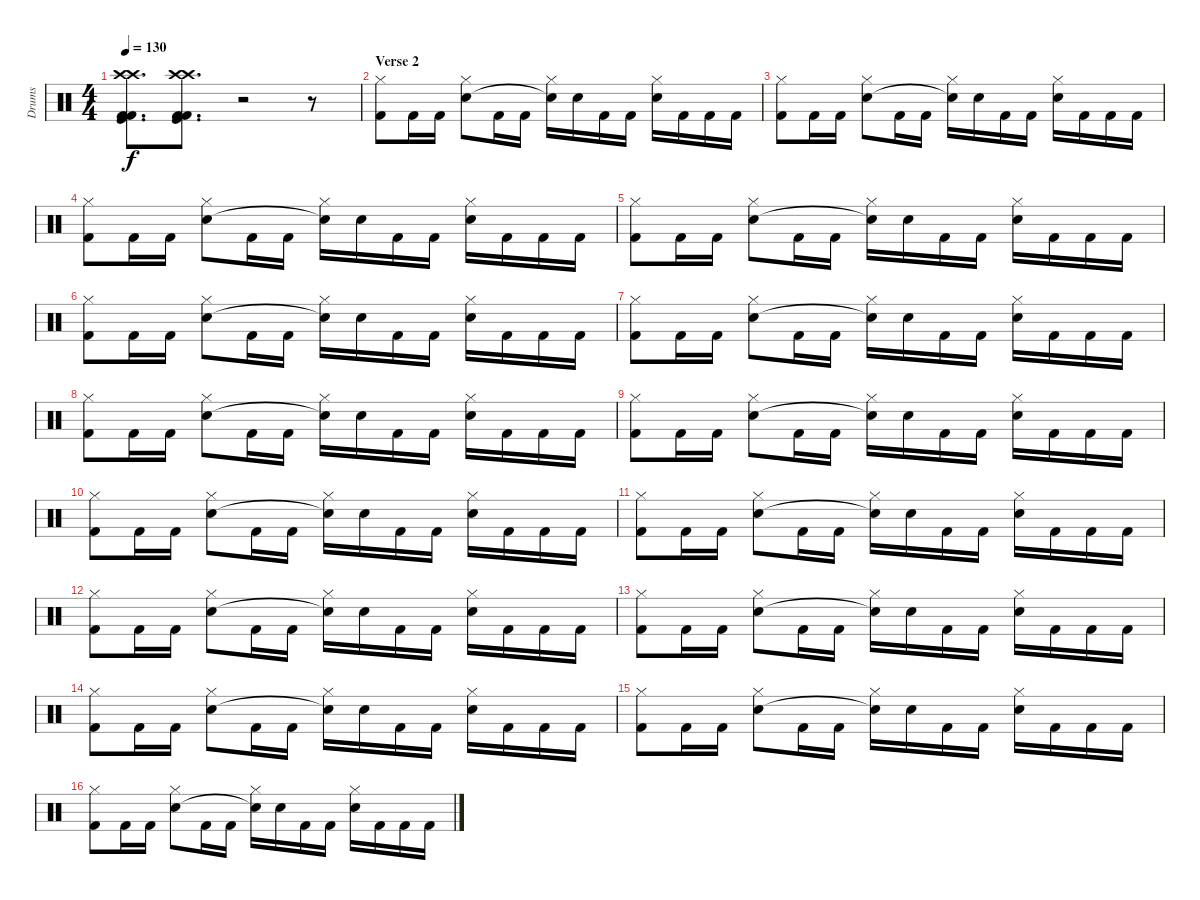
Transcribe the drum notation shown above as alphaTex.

\track ("Drums" "Drums") {instrument percussion}
\staff {score}
\articulation defaults
\ts (4 4)
\tempo 130
\clef neutral
\ks c
("Crash high (hit)" "Crash high (hit)" "Kick (hit)" "Kick (hit) 2" "Kick (hit) 2").8{d dy f} ("Crash high (hit)" "Crash high (hit)" "Kick (hit)" "Kick (hit) 2" "Kick (hit) 2").8{d} r.2 r.8 |
\section ("" "Verse 2")
("Hi-Hat (closed)" "Kick (hit) 2").8 "Kick (hit) 2".16 "Kick (hit) 2".16 ("Hi-Hat (closed)" "Electric Snare (hit)").8 "Kick (hit) 2".16 "Kick (hit) 2".16 ("Hi-Hat (closed)" "Snare (hit)"{t}).16 "Electric Snare (hit)".16 "Kick (hit) 2".16 "Kick (hit) 2".16 ("Hi-Hat (closed)" "Electric Snare (hit)").16 "Kick (hit) 2".16 "Kick (hit) 2".16 "Kick (hit) 2".16 |
("Hi-Hat (closed)" "Kick (hit) 2").8 "Kick (hit) 2".16 "Kick (hit) 2".16 ("Hi-Hat (closed)" "Electric Snare (hit)").8 "Kick (hit) 2".16 "Kick (hit) 2".16 ("Hi-Hat (closed)" "Snare (hit)"{t}).16 "Electric Snare (hit)".16 "Kick (hit) 2".16 "Kick (hit) 2".16 ("Hi-Hat (closed)" "Electric Snare (hit)").16 "Kick (hit) 2".16 "Kick (hit) 2".16 "Kick (hit) 2".16 |
("Hi-Hat (closed)" "Kick (hit) 2").8 "Kick (hit) 2".16 "Kick (hit) 2".16 ("Hi-Hat (closed)" "Electric Snare (hit)").8 "Kick (hit) 2".16 "Kick (hit) 2".16 ("Hi-Hat (closed)" "Snare (hit)"{t}).16 "Electric Snare (hit)".16 "Kick (hit) 2".16 "Kick (hit) 2".16 ("Hi-Hat (closed)" "Electric Snare (hit)").16 "Kick (hit) 2".16 "Kick (hit) 2".16 "Kick (hit) 2".16 |
("Hi-Hat (closed)" "Kick (hit) 2").8 "Kick (hit) 2".16 "Kick (hit) 2".16 ("Hi-Hat (closed)" "Electric Snare (hit)").8 "Kick (hit) 2".16 "Kick (hit) 2".16 ("Hi-Hat (closed)" "Snare (hit)"{t}).16 "Electric Snare (hit)".16 "Kick (hit) 2".16 "Kick (hit) 2".16 ("Hi-Hat (closed)" "Electric Snare (hit)").16 "Kick (hit) 2".16 "Kick (hit) 2".16 "Kick (hit) 2".16 |
("Hi-Hat (closed)" "Kick (hit) 2").8 "Kick (hit) 2".16 "Kick (hit) 2".16 ("Hi-Hat (closed)" "Electric Snare (hit)").8 "Kick (hit) 2".16 "Kick (hit) 2".16 ("Hi-Hat (closed)" "Snare (hit)"{t}).16 "Electric Snare (hit)".16 "Kick (hit) 2".16 "Kick (hit) 2".16 ("Hi-Hat (closed)" "Electric Snare (hit)").16 "Kick (hit) 2".16 "Kick (hit) 2".16 "Kick (hit) 2".16 |
("Hi-Hat (closed)" "Kick (hit) 2").8 "Kick (hit) 2".16 "Kick (hit) 2".16 ("Hi-Hat (closed)" "Electric Snare (hit)").8 "Kick (hit) 2".16 "Kick (hit) 2".16 ("Hi-Hat (closed)" "Snare (hit)"{t}).16 "Electric Snare (hit)".16 "Kick (hit) 2".16 "Kick (hit) 2".16 ("Hi-Hat (closed)" "Electric Snare (hit)").16 "Kick (hit) 2".16 "Kick (hit) 2".16 "Kick (hit) 2".16 |
("Hi-Hat (closed)" "Kick (hit) 2").8 "Kick (hit) 2".16 "Kick (hit) 2".16 ("Hi-Hat (closed)" "Electric Snare (hit)").8 "Kick (hit) 2".16 "Kick (hit) 2".16 ("Hi-Hat (closed)" "Snare (hit)"{t}).16 "Electric Snare (hit)".16 "Kick (hit) 2".16 "Kick (hit) 2".16 ("Hi-Hat (closed)" "Electric Snare (hit)").16 "Kick (hit) 2".16 "Kick (hit) 2".16 "Kick (hit) 2".16 |
("Hi-Hat (closed)" "Kick (hit) 2").8 "Kick (hit) 2".16 "Kick (hit) 2".16 ("Hi-Hat (closed)" "Electric Snare (hit)").8 "Kick (hit) 2".16 "Kick (hit) 2".16 ("Hi-Hat (closed)" "Snare (hit)"{t}).16 "Electric Snare (hit)".16 "Kick (hit) 2".16 "Kick (hit) 2".16 ("Hi-Hat (closed)" "Electric Snare (hit)").16 "Kick (hit) 2".16 "Kick (hit) 2".16 "Kick (hit) 2".16 |
("Hi-Hat (closed)" "Kick (hit) 2").8 "Kick (hit) 2".16 "Kick (hit) 2".16 ("Hi-Hat (closed)" "Electric Snare (hit)").8 "Kick (hit) 2".16 "Kick (hit) 2".16 ("Hi-Hat (closed)" "Snare (hit)"{t}).16 "Electric Snare (hit)".16 "Kick (hit) 2".16 "Kick (hit) 2".16 ("Hi-Hat (closed)" "Electric Snare (hit)").16 "Kick (hit) 2".16 "Kick (hit) 2".16 "Kick (hit) 2".16 |
("Hi-Hat (closed)" "Kick (hit) 2").8 "Kick (hit) 2".16 "Kick (hit) 2".16 ("Hi-Hat (closed)" "Electric Snare (hit)").8 "Kick (hit) 2".16 "Kick (hit) 2".16 ("Hi-Hat (closed)" "Snare (hit)"{t}).16 "Electric Snare (hit)".16 "Kick (hit) 2".16 "Kick (hit) 2".16 ("Hi-Hat (closed)" "Electric Snare (hit)").16 "Kick (hit) 2".16 "Kick (hit) 2".16 "Kick (hit) 2".16 |
("Hi-Hat (closed)" "Kick (hit) 2").8 "Kick (hit) 2".16 "Kick (hit) 2".16 ("Hi-Hat (closed)" "Electric Snare (hit)").8 "Kick (hit) 2".16 "Kick (hit) 2".16 ("Hi-Hat (closed)" "Snare (hit)"{t}).16 "Electric Snare (hit)".16 "Kick (hit) 2".16 "Kick (hit) 2".16 ("Hi-Hat (closed)" "Electric Snare (hit)").16 "Kick (hit) 2".16 "Kick (hit) 2".16 "Kick (hit) 2".16 |
("Hi-Hat (closed)" "Kick (hit) 2").8 "Kick (hit) 2".16 "Kick (hit) 2".16 ("Hi-Hat (closed)" "Electric Snare (hit)").8 "Kick (hit) 2".16 "Kick (hit) 2".16 ("Hi-Hat (closed)" "Snare (hit)"{t}).16 "Electric Snare (hit)".16 "Kick (hit) 2".16 "Kick (hit) 2".16 ("Hi-Hat (closed)" "Electric Snare (hit)").16 "Kick (hit) 2".16 "Kick (hit) 2".16 "Kick (hit) 2".16 |
("Hi-Hat (closed)" "Kick (hit) 2").8 "Kick (hit) 2".16 "Kick (hit) 2".16 ("Hi-Hat (closed)" "Electric Snare (hit)").8 "Kick (hit) 2".16 "Kick (hit) 2".16 ("Hi-Hat (closed)" "Snare (hit)"{t}).16 "Electric Snare (hit)".16 "Kick (hit) 2".16 "Kick (hit) 2".16 ("Hi-Hat (closed)" "Electric Snare (hit)").16 "Kick (hit) 2".16 "Kick (hit) 2".16 "Kick (hit) 2".16 |
("Hi-Hat (closed)" "Kick (hit) 2").8 "Kick (hit) 2".16 "Kick (hit) 2".16 ("Hi-Hat (closed)" "Electric Snare (hit)").8 "Kick (hit) 2".16 "Kick (hit) 2".16 ("Hi-Hat (closed)" "Snare (hit)"{t}).16 "Electric Snare (hit)".16 "Kick (hit) 2".16 "Kick (hit) 2".16 ("Hi-Hat (closed)" "Electric Snare (hit)").16 "Kick (hit) 2".16 "Kick (hit) 2".16 "Kick (hit) 2".16 |
("Hi-Hat (closed)" "Kick (hit) 2").8 "Kick (hit) 2".16 "Kick (hit) 2".16 ("Hi-Hat (closed)" "Electric Snare (hit)").8 "Kick (hit) 2".16 "Kick (hit) 2".16 ("Hi-Hat (closed)" "Snare (hit)"{t}).16 "Electric Snare (hit)".16 "Kick (hit) 2".16 "Kick (hit) 2".16 ("Hi-Hat (closed)" "Electric Snare (hit)").16 "Kick (hit) 2".16 "Kick (hit) 2".16 "Kick (hit) 2".16
